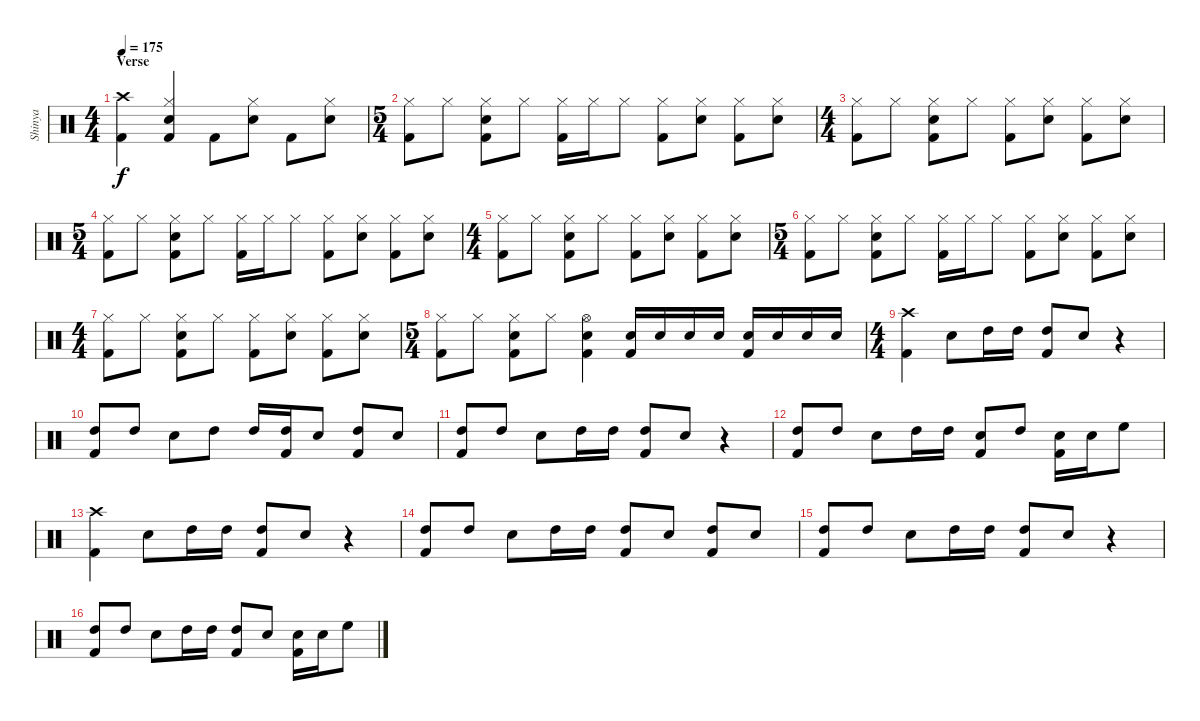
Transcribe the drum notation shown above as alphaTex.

\track ("Shinya" "Shinya") {instrument percussion}
\staff {score}
\articulation defaults
\ts (4 4)
\section ("" "Verse")
\tempo 175
\clef neutral
\ks c
("Crash high (hit)" "Kick (hit) 2").4{dy f} ("Hi-Hat (closed)" "Snare (hit) 2" "Kick (hit) 2").4 "Kick (hit) 2".8 ("Hi-Hat (closed)" "Snare (hit) 2").8 "Kick (hit) 2".8 ("Hi-Hat (closed)" "Snare (hit) 2").8 |
\ts (5 4)
("Hi-Hat (closed)" "Kick (hit) 2").8 "Hi-Hat (closed)".8 ("Hi-Hat (closed)" "Snare (hit) 2" "Kick (hit) 2").8 "Hi-Hat (closed)".8 ("Hi-Hat (closed)" "Kick (hit) 2").16 "Hi-Hat (closed)".16 "Hi-Hat (closed)".8 ("Hi-Hat (closed)" "Kick (hit) 2").8 ("Hi-Hat (closed)" "Snare (hit) 2").8 ("Hi-Hat (closed)" "Kick (hit) 2").8 ("Hi-Hat (closed)" "Snare (hit) 2").8 |
\ts (4 4)
("Kick (hit) 2" "Hi-Hat (closed)").8 "Hi-Hat (closed)".8 ("Kick (hit) 2" "Hi-Hat (closed)" "Snare (hit) 2").8 "Hi-Hat (closed)".8 ("Kick (hit) 2" "Hi-Hat (closed)").8 ("Hi-Hat (closed)" "Snare (hit) 2").8 ("Kick (hit) 2" "Hi-Hat (closed)").8 ("Hi-Hat (closed)" "Snare (hit) 2").8 |
\ts (5 4)
("Hi-Hat (closed)" "Kick (hit) 2").8 "Hi-Hat (closed)".8 ("Hi-Hat (closed)" "Snare (hit) 2" "Kick (hit) 2").8 "Hi-Hat (closed)".8 ("Hi-Hat (closed)" "Kick (hit) 2").16 "Hi-Hat (closed)".16 "Hi-Hat (closed)".8 ("Hi-Hat (closed)" "Kick (hit) 2").8 ("Hi-Hat (closed)" "Snare (hit) 2").8 ("Hi-Hat (closed)" "Kick (hit) 2").8 ("Hi-Hat (closed)" "Snare (hit) 2").8 |
\ts (4 4)
("Kick (hit) 2" "Hi-Hat (closed)").8 "Hi-Hat (closed)".8 ("Kick (hit) 2" "Hi-Hat (closed)" "Snare (hit) 2").8 "Hi-Hat (closed)".8 ("Kick (hit) 2" "Hi-Hat (closed)").8 ("Hi-Hat (closed)" "Snare (hit) 2").8 ("Kick (hit) 2" "Hi-Hat (closed)").8 ("Hi-Hat (closed)" "Snare (hit) 2").8 |
\ts (5 4)
("Hi-Hat (closed)" "Kick (hit) 2").8 "Hi-Hat (closed)".8 ("Hi-Hat (closed)" "Snare (hit) 2" "Kick (hit) 2").8 "Hi-Hat (closed)".8 ("Hi-Hat (closed)" "Kick (hit) 2").16 "Hi-Hat (closed)".16 "Hi-Hat (closed)".8 ("Hi-Hat (closed)" "Kick (hit) 2").8 ("Hi-Hat (closed)" "Snare (hit) 2").8 ("Hi-Hat (closed)" "Kick (hit) 2").8 ("Hi-Hat (closed)" "Snare (hit) 2").8 |
\ts (4 4)
("Kick (hit) 2" "Hi-Hat (closed)").8 "Hi-Hat (closed)".8 ("Kick (hit) 2" "Hi-Hat (closed)" "Snare (hit) 2").8 "Hi-Hat (closed)".8 ("Kick (hit) 2" "Hi-Hat (closed)").8 ("Hi-Hat (closed)" "Snare (hit) 2").8 ("Kick (hit) 2" "Hi-Hat (closed)").8 ("Hi-Hat (closed)" "Snare (hit) 2").8 |
\ts (5 4)
("Hi-Hat (closed)" "Kick (hit) 2").8 "Hi-Hat (closed)".8 ("Hi-Hat (closed)" "Snare (hit) 2" "Kick (hit) 2").8 "Hi-Hat (closed)".8 ("Hi-Hat (open)" "Snare (hit) 2" "Kick (hit) 2").4 ("Kick (hit) 2" "Snare (hit) 2").16 "Snare (hit) 2".16 "Snare (hit) 2".16 "Snare (hit) 2".16 ("Kick (hit) 2" "Snare (hit) 2").16 "Snare (hit) 2".16 "Snare (hit) 2".16 "Snare (hit) 2".16 |
\ts (4 4)
("Crash high (hit)" "Kick (hit) 2").4 "Snare (hit) 2".8 "High Tom (hit)".16 "High Tom (hit)".16 ("Kick (hit) 2" "High Tom (hit)").8 "Snare (hit) 2".8 r.4 |
("Kick (hit) 2" "High Tom (hit)").8 "High Tom (hit)".8 "Snare (hit) 2".8 "High Tom (hit)".8 "High Tom (hit)".16 ("Kick (hit) 2" "High Tom (hit)").16 "Snare (hit) 2".8 ("Kick (hit) 2" "High Tom (hit)").8 "Snare (hit) 2".8 |
("Kick (hit) 2" "High Tom (hit)").8 "High Tom (hit)".8 "Snare (hit) 2".8 "High Tom (hit)".16 "High Tom (hit)".16 ("Kick (hit) 2" "High Tom (hit)").8 "Snare (hit) 2".8 r.4 |
("Kick (hit) 2" "High Tom (hit)").8 "High Tom (hit)".8 "Snare (hit) 2".8 "High Tom (hit)".16 "High Tom (hit)".16 ("Snare (hit) 2" "Kick (hit) 2").8 "High Tom (hit)".8 ("Snare (hit) 2" "Kick (hit) 2").16 "Snare (hit) 2".16 "High Floor Tom (hit)".8 |
("Crash high (hit)" "Kick (hit) 2").4 "Snare (hit) 2".8 "High Tom (hit)".16 "High Tom (hit)".16 ("Kick (hit) 2" "High Tom (hit)").8 "Snare (hit) 2".8 r.4 |
("Kick (hit) 2" "High Tom (hit)").8 "High Tom (hit)".8 "Snare (hit) 2".8 "High Tom (hit)".16 "High Tom (hit)".16 ("Kick (hit) 2" "High Tom (hit)").8 "Snare (hit) 2".8 ("Kick (hit) 2" "High Tom (hit)").8 "Snare (hit) 2".8 |
("Kick (hit) 2" "High Tom (hit)").8 "High Tom (hit)".8 "Snare (hit) 2".8 "High Tom (hit)".16 "High Tom (hit)".16 ("Kick (hit) 2" "High Tom (hit)").8 "Snare (hit) 2".8 r.4 |
("Kick (hit) 2" "High Tom (hit)").8 "High Tom (hit)".8 "Snare (hit) 2".8 "High Tom (hit)".16 "High Tom (hit)".16 ("High Tom (hit)" "Kick (hit) 2").8 "Snare (hit) 2".8 ("Snare (hit) 2" "Kick (hit) 2").16 "Snare (hit) 2".16 "High Floor Tom (hit)".8
